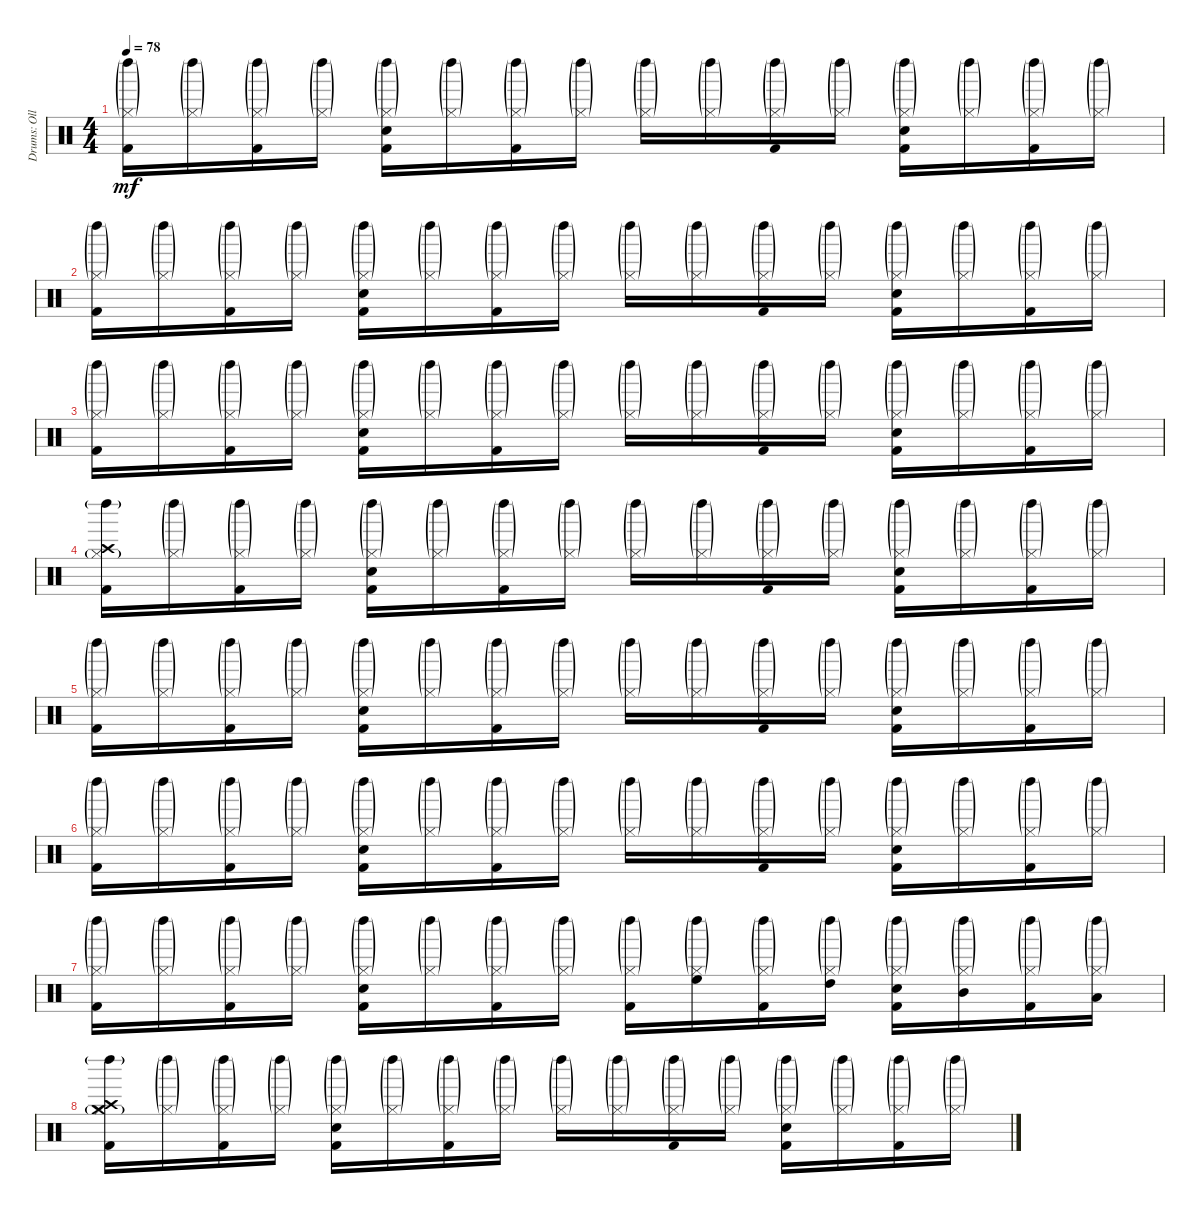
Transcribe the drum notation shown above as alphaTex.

\track ("Drums: Olle Romeo" "Drums: Oll") {instrument percussion}
\staff {score}
\articulation defaults
\ts (4 4)
\tempo 78
\clef neutral
\ks c
("Hi-Hat (closed)"{g} "Kick (hit) 2" "Left Maraca (hit)"{g}).16{dy mf} ("Hi-Hat (closed)"{g} "Left Maraca (hit)"{g}).16 ("Hi-Hat (closed)"{g} "Kick (hit) 2" "Left Maraca (hit)"{g}).16 ("Hi-Hat (closed)"{g} "Left Maraca (hit)"{g}).16 ("Hi-Hat (closed)"{g} "Snare (hit) 2" "Kick (hit) 2" "Left Maraca (hit)"{g}).16 ("Hi-Hat (closed)"{g} "Left Maraca (hit)"{g}).16 ("Hi-Hat (closed)"{g} "Kick (hit) 2" "Left Maraca (hit)"{g}).16 ("Hi-Hat (closed)"{g} "Left Maraca (hit)"{g}).16 ("Hi-Hat (closed)"{g} "Left Maraca (hit)"{g}).16 ("Hi-Hat (closed)"{g} "Left Maraca (hit)"{g}).16 ("Hi-Hat (closed)"{g} "Kick (hit) 2" "Left Maraca (hit)"{g}).16 ("Hi-Hat (closed)"{g} "Left Maraca (hit)"{g}).16 ("Hi-Hat (closed)"{g} "Snare (hit) 2" "Kick (hit) 2" "Left Maraca (hit)"{g}).16 ("Hi-Hat (closed)"{g} "Left Maraca (hit)"{g}).16 ("Hi-Hat (closed)"{g} "Kick (hit) 2" "Left Maraca (hit)"{g}).16 ("Hi-Hat (closed)"{g} "Left Maraca (hit)"{g}).16 |
("Hi-Hat (closed)"{g} "Kick (hit) 2" "Left Maraca (hit)"{g}).16 ("Hi-Hat (closed)"{g} "Left Maraca (hit)"{g}).16 ("Hi-Hat (closed)"{g} "Kick (hit) 2" "Left Maraca (hit)"{g}).16 ("Hi-Hat (closed)"{g} "Left Maraca (hit)"{g}).16 ("Hi-Hat (closed)"{g} "Snare (hit) 2" "Kick (hit) 2" "Left Maraca (hit)"{g}).16 ("Hi-Hat (closed)"{g} "Left Maraca (hit)"{g}).16 ("Hi-Hat (closed)"{g} "Kick (hit) 2" "Left Maraca (hit)"{g}).16 ("Hi-Hat (closed)"{g} "Left Maraca (hit)"{g}).16 ("Hi-Hat (closed)"{g} "Left Maraca (hit)"{g}).16 ("Hi-Hat (closed)"{g} "Left Maraca (hit)"{g}).16 ("Hi-Hat (closed)"{g} "Kick (hit) 2" "Left Maraca (hit)"{g}).16 ("Hi-Hat (closed)"{g} "Left Maraca (hit)"{g}).16 ("Hi-Hat (closed)"{g} "Snare (hit) 2" "Kick (hit) 2" "Left Maraca (hit)"{g}).16 ("Hi-Hat (closed)"{g} "Left Maraca (hit)"{g}).16 ("Hi-Hat (closed)"{g} "Kick (hit) 2" "Left Maraca (hit)"{g}).16 ("Hi-Hat (closed)"{g} "Left Maraca (hit)"{g}).16 |
("Hi-Hat (closed)"{g} "Kick (hit) 2" "Left Maraca (hit)"{g}).16 ("Hi-Hat (closed)"{g} "Left Maraca (hit)"{g}).16 ("Hi-Hat (closed)"{g} "Kick (hit) 2" "Left Maraca (hit)"{g}).16 ("Hi-Hat (closed)"{g} "Left Maraca (hit)"{g}).16 ("Hi-Hat (closed)"{g} "Snare (hit) 2" "Kick (hit) 2" "Left Maraca (hit)"{g}).16 ("Hi-Hat (closed)"{g} "Left Maraca (hit)"{g}).16 ("Hi-Hat (closed)"{g} "Kick (hit) 2" "Left Maraca (hit)"{g}).16 ("Hi-Hat (closed)"{g} "Left Maraca (hit)"{g}).16 ("Hi-Hat (closed)"{g} "Left Maraca (hit)"{g}).16 ("Hi-Hat (closed)"{g} "Left Maraca (hit)"{g}).16 ("Hi-Hat (closed)"{g} "Kick (hit) 2" "Left Maraca (hit)"{g}).16 ("Hi-Hat (closed)"{g} "Left Maraca (hit)"{g}).16 ("Hi-Hat (closed)"{g} "Snare (hit) 2" "Kick (hit) 2" "Left Maraca (hit)"{g}).16 ("Hi-Hat (closed)"{g} "Left Maraca (hit)"{g}).16 ("Hi-Hat (closed)"{g} "Kick (hit) 2" "Left Maraca (hit)"{g}).16 ("Hi-Hat (closed)"{g} "Left Maraca (hit)"{g}).16 |
("Crash high (hit)" "Hi-Hat (closed)"{g} "Kick (hit) 2" "Left Maraca (hit)"{g}).16 ("Hi-Hat (closed)"{g} "Left Maraca (hit)"{g}).16 ("Hi-Hat (closed)"{g} "Kick (hit) 2" "Left Maraca (hit)"{g}).16 ("Hi-Hat (closed)"{g} "Left Maraca (hit)"{g}).16 ("Hi-Hat (closed)"{g} "Snare (hit) 2" "Kick (hit) 2" "Left Maraca (hit)"{g}).16 ("Hi-Hat (closed)"{g} "Left Maraca (hit)"{g}).16 ("Hi-Hat (closed)"{g} "Kick (hit) 2" "Left Maraca (hit)"{g}).16 ("Hi-Hat (closed)"{g} "Left Maraca (hit)"{g}).16 ("Hi-Hat (closed)"{g} "Left Maraca (hit)"{g}).16 ("Hi-Hat (closed)"{g} "Left Maraca (hit)"{g}).16 ("Hi-Hat (closed)"{g} "Kick (hit) 2" "Left Maraca (hit)"{g}).16 ("Hi-Hat (closed)"{g} "Left Maraca (hit)"{g}).16 ("Hi-Hat (closed)"{g} "Snare (hit) 2" "Kick (hit) 2" "Left Maraca (hit)"{g}).16 ("Hi-Hat (closed)"{g} "Left Maraca (hit)"{g}).16 ("Hi-Hat (closed)"{g} "Kick (hit) 2" "Left Maraca (hit)"{g}).16 ("Hi-Hat (closed)"{g} "Left Maraca (hit)"{g}).16 |
("Hi-Hat (closed)"{g} "Kick (hit) 2" "Left Maraca (hit)"{g}).16 ("Hi-Hat (closed)"{g} "Left Maraca (hit)"{g}).16 ("Hi-Hat (closed)"{g} "Kick (hit) 2" "Left Maraca (hit)"{g}).16 ("Hi-Hat (closed)"{g} "Left Maraca (hit)"{g}).16 ("Hi-Hat (closed)"{g} "Snare (hit) 2" "Kick (hit) 2" "Left Maraca (hit)"{g}).16 ("Hi-Hat (closed)"{g} "Left Maraca (hit)"{g}).16 ("Hi-Hat (closed)"{g} "Kick (hit) 2" "Left Maraca (hit)"{g}).16 ("Hi-Hat (closed)"{g} "Left Maraca (hit)"{g}).16 ("Hi-Hat (closed)"{g} "Left Maraca (hit)"{g}).16 ("Hi-Hat (closed)"{g} "Left Maraca (hit)"{g}).16 ("Hi-Hat (closed)"{g} "Kick (hit) 2" "Left Maraca (hit)"{g}).16 ("Hi-Hat (closed)"{g} "Left Maraca (hit)"{g}).16 ("Hi-Hat (closed)"{g} "Snare (hit) 2" "Kick (hit) 2" "Left Maraca (hit)"{g}).16 ("Hi-Hat (closed)"{g} "Left Maraca (hit)"{g}).16 ("Hi-Hat (closed)"{g} "Kick (hit) 2" "Left Maraca (hit)"{g}).16 ("Hi-Hat (closed)"{g} "Left Maraca (hit)"{g}).16 |
("Hi-Hat (closed)"{g} "Kick (hit) 2" "Left Maraca (hit)"{g}).16 ("Hi-Hat (closed)"{g} "Left Maraca (hit)"{g}).16 ("Hi-Hat (closed)"{g} "Kick (hit) 2" "Left Maraca (hit)"{g}).16 ("Hi-Hat (closed)"{g} "Left Maraca (hit)"{g}).16 ("Hi-Hat (closed)"{g} "Snare (hit) 2" "Kick (hit) 2" "Left Maraca (hit)"{g}).16 ("Hi-Hat (closed)"{g} "Left Maraca (hit)"{g}).16 ("Hi-Hat (closed)"{g} "Kick (hit) 2" "Left Maraca (hit)"{g}).16 ("Hi-Hat (closed)"{g} "Left Maraca (hit)"{g}).16 ("Hi-Hat (closed)"{g} "Left Maraca (hit)"{g}).16 ("Hi-Hat (closed)"{g} "Left Maraca (hit)"{g}).16 ("Hi-Hat (closed)"{g} "Kick (hit) 2" "Left Maraca (hit)"{g}).16 ("Hi-Hat (closed)"{g} "Left Maraca (hit)"{g}).16 ("Hi-Hat (closed)"{g} "Snare (hit) 2" "Kick (hit) 2" "Left Maraca (hit)"{g}).16 ("Hi-Hat (closed)"{g} "Left Maraca (hit)"{g}).16 ("Hi-Hat (closed)"{g} "Kick (hit) 2" "Left Maraca (hit)"{g}).16 ("Hi-Hat (closed)"{g} "Left Maraca (hit)"{g}).16 |
("Hi-Hat (closed)"{g} "Kick (hit) 2" "Left Maraca (hit)"{g}).16 ("Hi-Hat (closed)"{g} "Left Maraca (hit)"{g}).16 ("Hi-Hat (closed)"{g} "Kick (hit) 2" "Left Maraca (hit)"{g}).16 ("Hi-Hat (closed)"{g} "Left Maraca (hit)"{g}).16 ("Hi-Hat (closed)"{g} "Snare (hit) 2" "Kick (hit) 2" "Left Maraca (hit)"{g}).16 ("Hi-Hat (closed)"{g} "Left Maraca (hit)"{g}).16 ("Hi-Hat (closed)"{g} "Kick (hit) 2" "Left Maraca (hit)"{g}).16 ("Hi-Hat (closed)"{g} "Left Maraca (hit)"{g}).16 ("Hi-Hat (closed)"{g} "Kick (hit) 2" "Left Maraca (hit)"{g}).16 ("Hi-Hat (closed)"{g} "High Floor Tom (hit)" "Left Maraca (hit)"{g}).16 ("Hi-Hat (closed)"{g} "Kick (hit) 2" "Left Maraca (hit)"{g}).16 ("Hi-Hat (closed)"{g} "High Tom (hit)" "Left Maraca (hit)"{g}).16 ("Hi-Hat (closed)"{g} "Snare (hit) 2" "Kick (hit) 2" "Left Maraca (hit)"{g}).16 ("Hi-Hat (closed)"{g} "Mid Tom (hit)" "Left Maraca (hit)"{g}).16 ("Hi-Hat (closed)"{g} "Kick (hit) 2" "Left Maraca (hit)"{g}).16 ("Hi-Hat (closed)"{g} "Low Tom (hit)" "Left Maraca (hit)"{g}).16 |
("Crash medium (hit)" "Hi-Hat (closed)"{g} "Crash high (hit)" "Kick (hit) 2" "Left Maraca (hit)"{g}).16 ("Hi-Hat (closed)"{g} "Left Maraca (hit)"{g}).16 ("Hi-Hat (closed)"{g} "Kick (hit) 2" "Left Maraca (hit)"{g}).16 ("Hi-Hat (closed)"{g} "Left Maraca (hit)"{g}).16 ("Hi-Hat (closed)"{g} "Snare (hit) 2" "Kick (hit) 2" "Left Maraca (hit)"{g}).16 ("Hi-Hat (closed)"{g} "Left Maraca (hit)"{g}).16 ("Hi-Hat (closed)"{g} "Kick (hit) 2" "Left Maraca (hit)"{g}).16 ("Hi-Hat (closed)"{g} "Left Maraca (hit)"{g}).16 ("Hi-Hat (closed)"{g} "Left Maraca (hit)"{g}).16 ("Hi-Hat (closed)"{g} "Left Maraca (hit)"{g}).16 ("Hi-Hat (closed)"{g} "Kick (hit) 2" "Left Maraca (hit)"{g}).16 ("Hi-Hat (closed)"{g} "Left Maraca (hit)"{g}).16 ("Hi-Hat (closed)"{g} "Snare (hit) 2" "Kick (hit) 2" "Left Maraca (hit)"{g}).16 ("Hi-Hat (closed)"{g} "Left Maraca (hit)"{g}).16 ("Hi-Hat (closed)"{g} "Kick (hit) 2" "Left Maraca (hit)"{g}).16 ("Hi-Hat (closed)"{g} "Left Maraca (hit)"{g}).16
